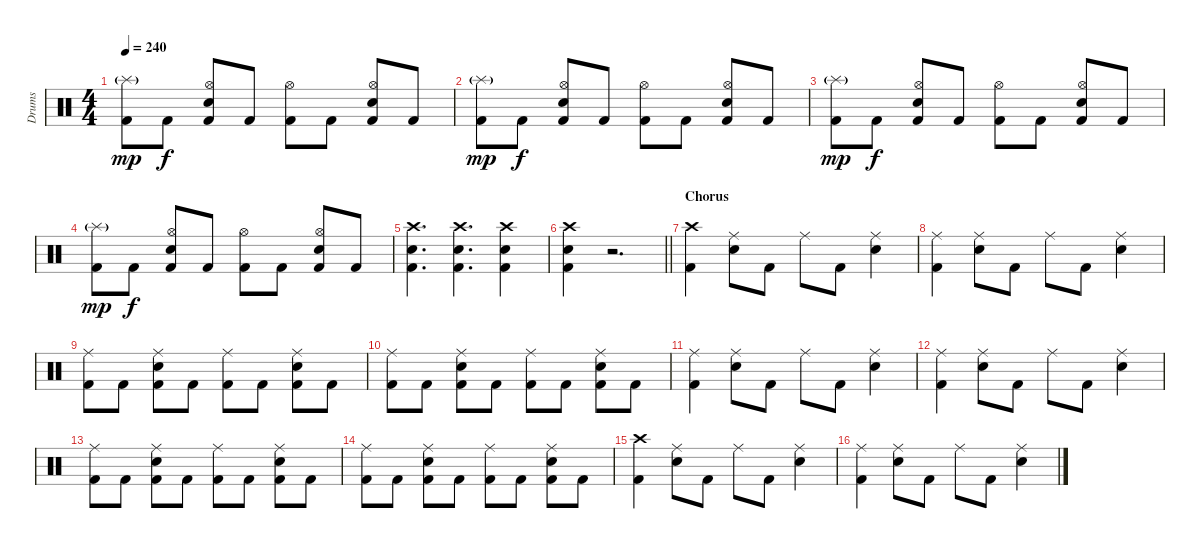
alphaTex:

\track ("Drums" "Drums") {instrument percussion}
\staff {score}
\articulation defaults
\ts (4 4)
\tempo 240
\clef neutral
\ks c
("Splash (hit)"{g} "Kick (hit) 2").8{dy mp} "Kick (hit) 2".8{dy f} ("Hi-Hat (open)" "Snare (hit) 2" "Kick (hit) 2").8 "Kick (hit) 2".8 ("Hi-Hat (open)" "Kick (hit) 2").8 "Kick (hit) 2".8 ("Hi-Hat (open)" "Snare (hit) 2" "Kick (hit) 2").8 "Kick (hit) 2".8 |
("Splash (hit)"{g} "Kick (hit) 2").8{dy mp} "Kick (hit) 2".8{dy f} ("Hi-Hat (open)" "Snare (hit) 2" "Kick (hit) 2").8 "Kick (hit) 2".8 ("Hi-Hat (open)" "Kick (hit) 2").8 "Kick (hit) 2".8 ("Hi-Hat (open)" "Snare (hit) 2" "Kick (hit) 2").8 "Kick (hit) 2".8 |
("Splash (hit)"{g} "Kick (hit) 2").8{dy mp} "Kick (hit) 2".8{dy f} ("Hi-Hat (open)" "Snare (hit) 2" "Kick (hit) 2").8 "Kick (hit) 2".8 ("Hi-Hat (open)" "Kick (hit) 2").8 "Kick (hit) 2".8 ("Hi-Hat (open)" "Snare (hit) 2" "Kick (hit) 2").8 "Kick (hit) 2".8 |
("Splash (hit)"{g} "Kick (hit) 2").8{dy mp} "Kick (hit) 2".8{dy f} ("Hi-Hat (open)" "Snare (hit) 2" "Kick (hit) 2").8 "Kick (hit) 2".8 ("Hi-Hat (open)" "Kick (hit) 2").8 "Kick (hit) 2".8 ("Hi-Hat (open)" "Snare (hit) 2" "Kick (hit) 2").8 "Kick (hit) 2".8 |
("Crash high (hit)" "Snare (hit) 2" "Kick (hit) 2").4{d} ("Crash high (hit)" "Snare (hit) 2" "Kick (hit) 2").4{d} ("Crash high (hit)" "Snare (hit) 2" "Kick (hit) 2").4 |
\barLineRight lightlight
("Crash high (hit)" "Snare (hit) 2" "Kick (hit) 2").4 r.2{d} |
\section ("" "Chorus")
("Crash high (hit)" "Kick (hit) 2").4 ("Ride (middle)" "Snare (hit) 2").8 "Kick (hit) 2".8 "Ride (middle)".8 "Kick (hit) 2".8 ("Ride (middle)" "Snare (hit) 2").4 |
("Ride (middle)" "Kick (hit) 2").4 ("Ride (middle)" "Snare (hit) 2").8 "Kick (hit) 2".8 "Ride (middle)".8 "Kick (hit) 2".8 ("Ride (middle)" "Snare (hit) 2").4 |
("Ride (middle)" "Kick (hit) 2").8 "Kick (hit) 2".8 ("Ride (middle)" "Snare (hit) 2" "Kick (hit) 2").8 "Kick (hit) 2".8 ("Ride (middle)" "Kick (hit) 2").8 "Kick (hit) 2".8 ("Ride (middle)" "Snare (hit) 2" "Kick (hit) 2").8 "Kick (hit) 2".8 |
("Ride (middle)" "Kick (hit) 2").8 "Kick (hit) 2".8 ("Ride (middle)" "Snare (hit) 2" "Kick (hit) 2").8 "Kick (hit) 2".8 ("Ride (middle)" "Kick (hit) 2").8 "Kick (hit) 2".8 ("Ride (middle)" "Snare (hit) 2" "Kick (hit) 2").8 "Kick (hit) 2".8 |
("Ride (middle)" "Kick (hit) 2").4 ("Ride (middle)" "Snare (hit) 2").8 "Kick (hit) 2".8 "Ride (middle)".8 "Kick (hit) 2".8 ("Ride (middle)" "Snare (hit) 2").4 |
("Ride (middle)" "Kick (hit) 2").4 ("Ride (middle)" "Snare (hit) 2").8 "Kick (hit) 2".8 "Ride (middle)".8 "Kick (hit) 2".8 ("Ride (middle)" "Snare (hit) 2").4 |
("Ride (middle)" "Kick (hit) 2").8 "Kick (hit) 2".8 ("Ride (middle)" "Snare (hit) 2" "Kick (hit) 2").8 "Kick (hit) 2".8 ("Ride (middle)" "Kick (hit) 2").8 "Kick (hit) 2".8 ("Ride (middle)" "Snare (hit) 2" "Kick (hit) 2").8 "Kick (hit) 2".8 |
("Ride (middle)" "Kick (hit) 2").8 "Kick (hit) 2".8 ("Ride (middle)" "Snare (hit) 2" "Kick (hit) 2").8 "Kick (hit) 2".8 ("Ride (middle)" "Kick (hit) 2").8 "Kick (hit) 2".8 ("Ride (middle)" "Snare (hit) 2" "Kick (hit) 2").8 "Kick (hit) 2".8 |
("Crash high (hit)" "Kick (hit) 2").4 ("Ride (middle)" "Snare (hit) 2").8 "Kick (hit) 2".8 "Ride (middle)".8 "Kick (hit) 2".8 ("Ride (middle)" "Snare (hit) 2").4 |
("Ride (middle)" "Kick (hit) 2").4 ("Ride (middle)" "Snare (hit) 2").8 "Kick (hit) 2".8 "Ride (middle)".8 "Kick (hit) 2".8 ("Ride (middle)" "Snare (hit) 2").4
